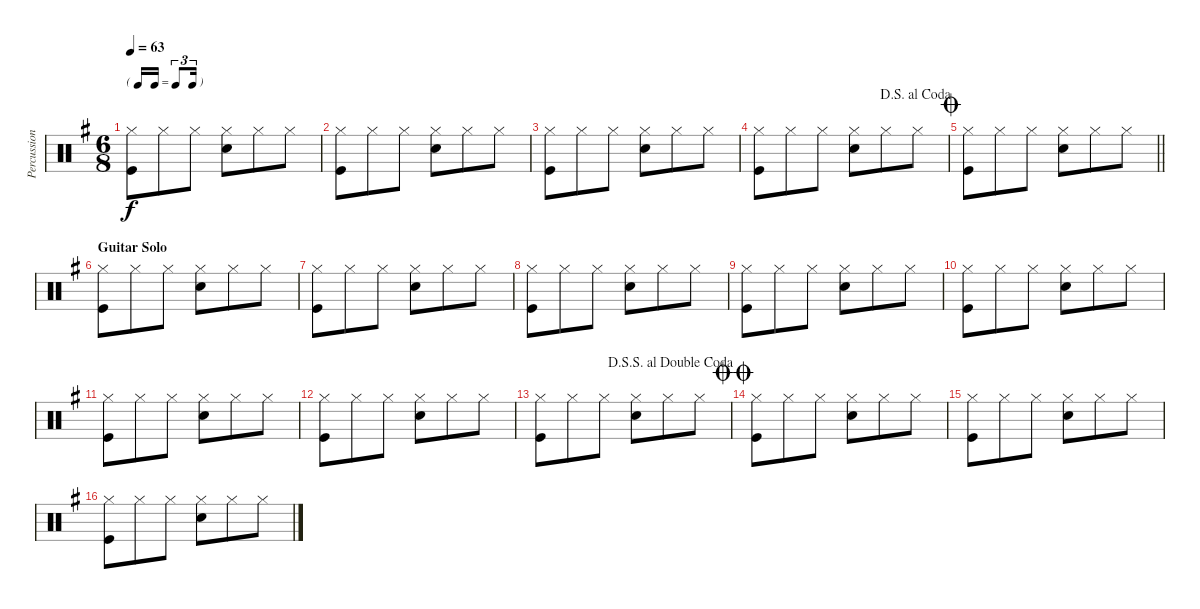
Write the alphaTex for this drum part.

\track ("Percussion" "Percussion") {instrument percussion}
\staff {score}
\articulation defaults
\ts (6 8)
\tf triplet16th
\tempo 63
\clef neutral
\ks g
("Hi-Hat (closed)" "Kick (hit)").8{dy f} "Hi-Hat (closed)".8 "Hi-Hat (closed)".8 ("Hi-Hat (closed)" "Electric Snare (hit)").8 "Hi-Hat (closed)".8 "Hi-Hat (closed)".8 |
("Hi-Hat (closed)" "Kick (hit)").8 "Hi-Hat (closed)".8 "Hi-Hat (closed)".8 ("Hi-Hat (closed)" "Electric Snare (hit)").8 "Hi-Hat (closed)".8 "Hi-Hat (closed)".8 |
("Hi-Hat (closed)" "Kick (hit)").8 "Hi-Hat (closed)".8 "Hi-Hat (closed)".8 ("Hi-Hat (closed)" "Electric Snare (hit)").8 "Hi-Hat (closed)".8 "Hi-Hat (closed)".8 |
\jump dalsegnoalcoda
("Hi-Hat (closed)" "Kick (hit)").8 "Hi-Hat (closed)".8 "Hi-Hat (closed)".8 ("Hi-Hat (closed)" "Electric Snare (hit)").8 "Hi-Hat (closed)".8 "Hi-Hat (closed)".8 |
\jump coda
\barLineRight lightlight
("Hi-Hat (closed)" "Kick (hit)").8 "Hi-Hat (closed)".8 "Hi-Hat (closed)".8 ("Hi-Hat (closed)" "Electric Snare (hit)").8 "Hi-Hat (closed)".8 "Hi-Hat (closed)".8 |
\section ("" "Guitar Solo")
("Hi-Hat (closed)" "Kick (hit)").8 "Hi-Hat (closed)".8 "Hi-Hat (closed)".8 ("Hi-Hat (closed)" "Electric Snare (hit)").8 "Hi-Hat (closed)".8 "Hi-Hat (closed)".8 |
("Hi-Hat (closed)" "Kick (hit)").8 "Hi-Hat (closed)".8 "Hi-Hat (closed)".8 ("Hi-Hat (closed)" "Electric Snare (hit)").8 "Hi-Hat (closed)".8 "Hi-Hat (closed)".8 |
("Hi-Hat (closed)" "Kick (hit)").8 "Hi-Hat (closed)".8 "Hi-Hat (closed)".8 ("Hi-Hat (closed)" "Electric Snare (hit)").8 "Hi-Hat (closed)".8 "Hi-Hat (closed)".8 |
("Hi-Hat (closed)" "Kick (hit)").8 "Hi-Hat (closed)".8 "Hi-Hat (closed)".8 ("Hi-Hat (closed)" "Electric Snare (hit)").8 "Hi-Hat (closed)".8 "Hi-Hat (closed)".8 |
("Hi-Hat (closed)" "Kick (hit)").8 "Hi-Hat (closed)".8 "Hi-Hat (closed)".8 ("Hi-Hat (closed)" "Electric Snare (hit)").8 "Hi-Hat (closed)".8 "Hi-Hat (closed)".8 |
("Hi-Hat (closed)" "Kick (hit)").8 "Hi-Hat (closed)".8 "Hi-Hat (closed)".8 ("Hi-Hat (closed)" "Electric Snare (hit)").8 "Hi-Hat (closed)".8 "Hi-Hat (closed)".8 |
("Hi-Hat (closed)" "Kick (hit)").8 "Hi-Hat (closed)".8 "Hi-Hat (closed)".8 ("Hi-Hat (closed)" "Electric Snare (hit)").8 "Hi-Hat (closed)".8 "Hi-Hat (closed)".8 |
\jump dalsegnosegnoaldoublecoda
("Hi-Hat (closed)" "Kick (hit)").8 "Hi-Hat (closed)".8 "Hi-Hat (closed)".8 ("Hi-Hat (closed)" "Electric Snare (hit)").8 "Hi-Hat (closed)".8 "Hi-Hat (closed)".8 |
\jump doublecoda
("Hi-Hat (closed)" "Kick (hit)").8 "Hi-Hat (closed)".8 "Hi-Hat (closed)".8 ("Hi-Hat (closed)" "Electric Snare (hit)").8 "Hi-Hat (closed)".8 "Hi-Hat (closed)".8 |
("Hi-Hat (closed)" "Kick (hit)").8 "Hi-Hat (closed)".8 "Hi-Hat (closed)".8 ("Hi-Hat (closed)" "Electric Snare (hit)").8 "Hi-Hat (closed)".8 "Hi-Hat (closed)".8 |
("Hi-Hat (closed)" "Kick (hit)").8 "Hi-Hat (closed)".8 "Hi-Hat (closed)".8 ("Hi-Hat (closed)" "Electric Snare (hit)").8 "Hi-Hat (closed)".8 "Hi-Hat (closed)".8
